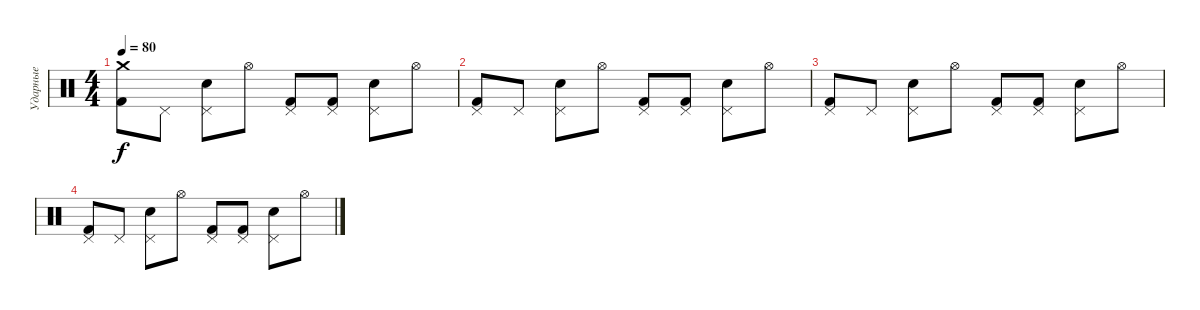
\track ("Ударные" "Ударные") {instrument percussion}
\staff {score}
\articulation defaults
\ts (4 4)
\tempo 80
\clef neutral
\ks c
("Crash medium (hit)" "Kick (hit) 2").8{dy f} "Pedal Hi-Hat (hit)".8 ("Pedal Hi-Hat (hit)" "Electric Snare (hit)").8 "Hi-Hat (open)".8 ("Pedal Hi-Hat (hit)" "Kick (hit) 2").8 ("Pedal Hi-Hat (hit)" "Kick (hit) 2").8 ("Pedal Hi-Hat (hit)" "Electric Snare (hit)").8 "Hi-Hat (open)".8 |
("Pedal Hi-Hat (hit)" "Kick (hit) 2").8 "Pedal Hi-Hat (hit)".8 ("Pedal Hi-Hat (hit)" "Electric Snare (hit)").8 "Hi-Hat (open)".8 ("Pedal Hi-Hat (hit)" "Kick (hit) 2").8 ("Pedal Hi-Hat (hit)" "Kick (hit) 2").8 ("Pedal Hi-Hat (hit)" "Electric Snare (hit)").8 "Hi-Hat (open)".8 |
("Pedal Hi-Hat (hit)" "Kick (hit) 2").8 "Pedal Hi-Hat (hit)".8 ("Pedal Hi-Hat (hit)" "Electric Snare (hit)").8 "Hi-Hat (open)".8 ("Pedal Hi-Hat (hit)" "Kick (hit) 2").8 ("Pedal Hi-Hat (hit)" "Kick (hit) 2").8 ("Pedal Hi-Hat (hit)" "Electric Snare (hit)").8 "Hi-Hat (open)".8 |
("Pedal Hi-Hat (hit)" "Kick (hit) 2").8 "Pedal Hi-Hat (hit)".8 ("Pedal Hi-Hat (hit)" "Electric Snare (hit)").8 "Hi-Hat (open)".8 ("Pedal Hi-Hat (hit)" "Kick (hit) 2").8 ("Pedal Hi-Hat (hit)" "Kick (hit) 2").8 ("Pedal Hi-Hat (hit)" "Electric Snare (hit)").8 "Hi-Hat (open)".8
